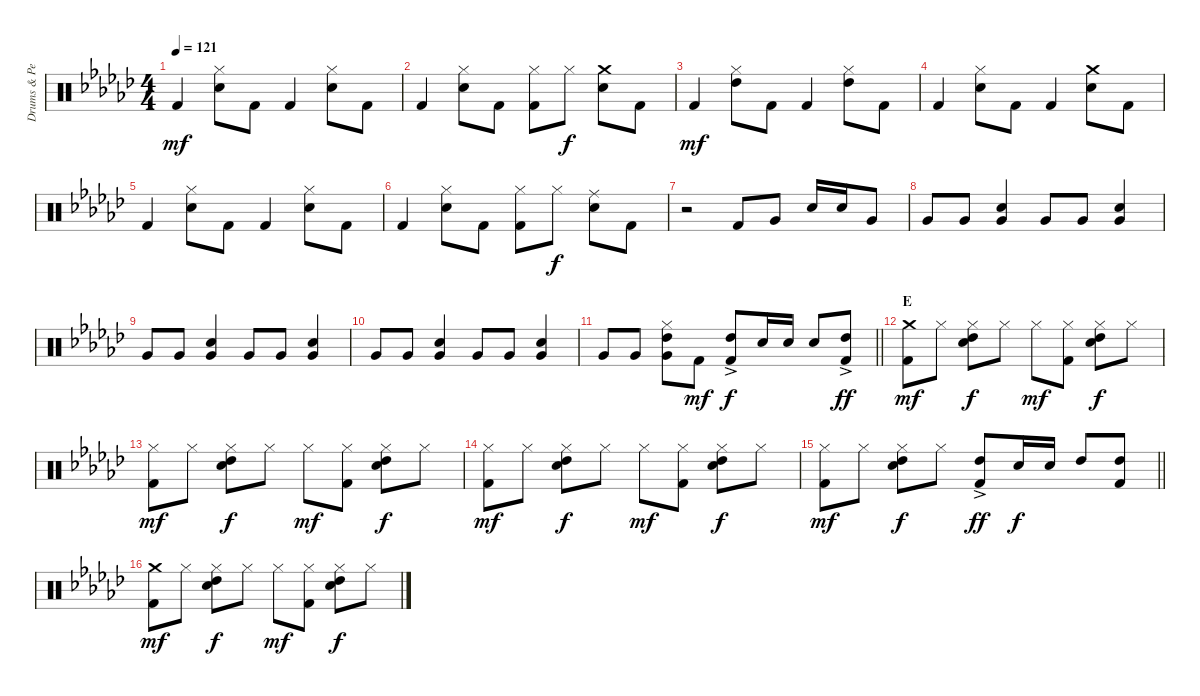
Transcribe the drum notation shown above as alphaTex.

\track ("Drums & Percussion" "Drums & Pe") {instrument percussion bank 98}
\staff {score}
\articulation defaults
\ts (4 4)
\tempo 121
\clef neutral
\ks ebminor "Kick (hit) 2".4{dy mf}
("Hi-Hat (closed)" "Snare (hit) 2").8 "Kick (hit) 2".8 "Kick (hit) 2".4 ("Hi-Hat (closed)" "Snare (hit) 2").8 "Kick (hit) 2".8 |
"Kick (hit) 2".4 ("Hi-Hat (closed)" "Snare (hit) 2").8 "Kick (hit) 2".8 ("Hi-Hat (closed)" "Kick (hit) 2").8 "Hi-Hat (closed)".8{dy f} ("Crash medium (hit)" "Snare (hit) 2").8 "Kick (hit) 2".8 |
"Kick (hit) 2".4{dy mf} ("Hi-Hat (closed)" "High Tom (hit)").8 "Kick (hit) 2".8 "Kick (hit) 2".4 ("Hi-Hat (closed)" "High Tom (hit)").8 "Kick (hit) 2".8 |
"Kick (hit) 2".4 ("Hi-Hat (closed)" "Snare (hit) 2").8 "Kick (hit) 2".8 "Kick (hit) 2".4 ("Crash medium (hit)" "Snare (hit) 2").8 "Kick (hit) 2".8 |
"Kick (hit) 2".4 ("Hi-Hat (closed)" "Snare (hit) 2").8 "Kick (hit) 2".8 "Kick (hit) 2".4 ("Hi-Hat (closed)" "Snare (hit) 2").8 "Kick (hit) 2".8 |
"Kick (hit) 2".4 ("Hi-Hat (closed)" "Snare (hit) 2").8 "Kick (hit) 2".8 ("Hi-Hat (closed)" "Kick (hit) 2").8 "Hi-Hat (closed)".8{dy f} ("Ride (middle)" "Snare (hit) 2").8 "Kick (hit) 2".8 |
r.2 "Kick (hit) 2".8 "Very Low Tom (hit)".8 "Snare (hit) 2".16 "Snare (hit) 2".16 "Very Low Tom (hit)".8 |
"Very Low Tom (hit)".8 "Very Low Tom (hit)".8 ("Snare (hit) 2" "Very Low Tom (hit)").4 "Very Low Tom (hit)".8 "Very Low Tom (hit)".8 ("Snare (hit) 2" "Very Low Tom (hit)").4 |
"Very Low Tom (hit)".8 "Very Low Tom (hit)".8 ("Snare (hit) 2" "Very Low Tom (hit)").4 "Very Low Tom (hit)".8 "Very Low Tom (hit)".8 ("Snare (hit) 2" "Very Low Tom (hit)").4 |
"Very Low Tom (hit)".8 "Very Low Tom (hit)".8 ("Snare (hit) 2" "Very Low Tom (hit)").4 "Very Low Tom (hit)".8 "Very Low Tom (hit)".8 ("Snare (hit) 2" "Very Low Tom (hit)").4 |
\barLineRight lightlight "Very Low Tom (hit)".8 "Very Low Tom (hit)".8
("Hi-Hat (closed)" "High Tom (hit)" "Very Low Tom (hit)").8 "Kick (hit) 2".8{dy mf} ("High Tom (hit)"{ac} "Kick (hit) 2").8{dy f} "Electric Snare (hit)".16 "Snare (hit) 2".16 "Snare (hit) 2".8 ("High Tom (hit)"{ac} "Kick (hit) 2").8{dy ff} |
\section ("" "E")
("Crash medium (hit)" "Kick (hit) 2").8{dy mf} "Hi-Hat (closed)".8 ("Hi-Hat (closed)" "High Tom (hit)" "Snare (hit) 2").8{dy f} "Hi-Hat (closed)".8 "Hi-Hat (closed)".8{dy mf} ("Hi-Hat (closed)" "Kick (hit) 2").8 ("Hi-Hat (closed)" "High Tom (hit)" "Snare (hit) 2").8{dy f} "Hi-Hat (closed)".8 |
("Hi-Hat (closed)" "Kick (hit) 2").8{dy mf} "Hi-Hat (closed)".8 ("Hi-Hat (closed)" "High Tom (hit)" "Snare (hit) 2").8{dy f} "Hi-Hat (closed)".8 "Hi-Hat (closed)".8{dy mf} ("Hi-Hat (closed)" "Kick (hit) 2").8 ("Hi-Hat (closed)" "High Tom (hit)" "Snare (hit) 2").8{dy f} "Hi-Hat (closed)".8 |
("Hi-Hat (closed)" "Kick (hit) 2").8{dy mf} "Hi-Hat (closed)".8 ("Hi-Hat (closed)" "High Tom (hit)" "Snare (hit) 2").8{dy f} "Hi-Hat (closed)".8 "Hi-Hat (closed)".8{dy mf} ("Hi-Hat (closed)" "Kick (hit) 2").8 ("Hi-Hat (closed)" "High Tom (hit)" "Snare (hit) 2").8{dy f} "Hi-Hat (closed)".8 |
\barLineRight lightlight
("Hi-Hat (closed)" "Kick (hit) 2").8{dy mf} "Hi-Hat (closed)".8 ("Hi-Hat (closed)" "High Tom (hit)" "Snare (hit) 2").8{dy f} "Hi-Hat (closed)".8 ("High Tom (hit)"{ac} "Kick (hit) 2").8{dy ff} "Snare (hit) 2".16{dy f} "Snare (hit) 2".16 "High Tom (hit)".8 ("High Tom (hit)" "Kick (hit) 2").8 |
("Crash medium (hit)" "Kick (hit) 2").8{dy mf} "Hi-Hat (closed)".8 ("Hi-Hat (closed)" "High Tom (hit)" "Snare (hit) 2").8{dy f} "Hi-Hat (closed)".8 "Hi-Hat (closed)".8{dy mf} ("Hi-Hat (closed)" "Kick (hit) 2").8 ("Hi-Hat (closed)" "High Tom (hit)" "Snare (hit) 2").8{dy f} "Hi-Hat (closed)".8
